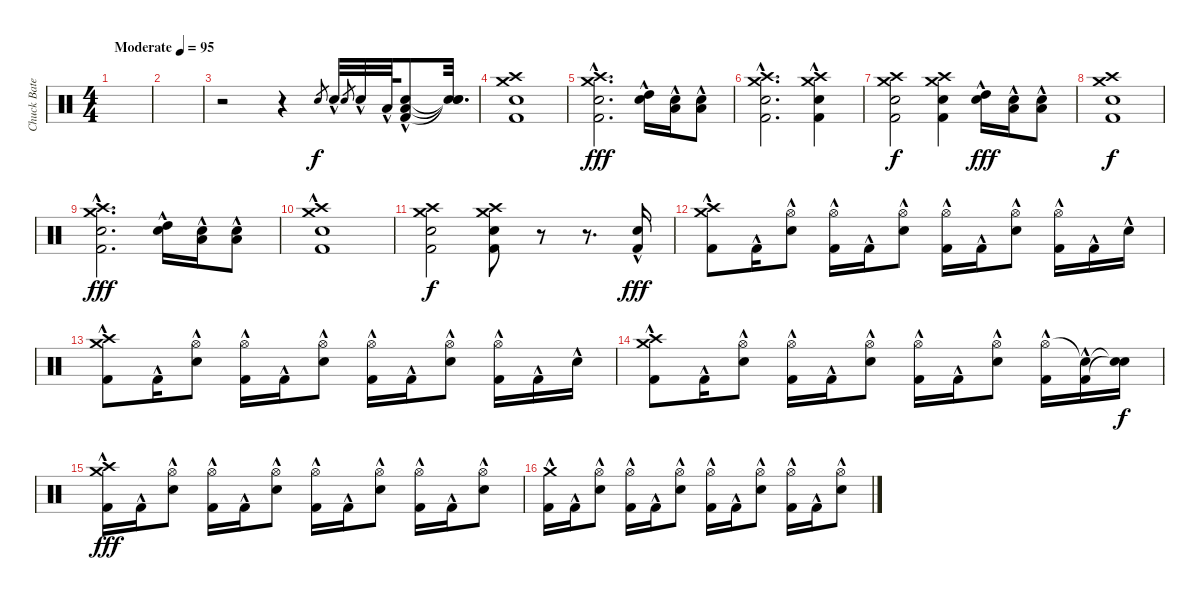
\track ("Chuck Bateria" "Chuck Bate") {instrument percussion}
\staff {score}
\articulation defaults
\ts (4 4)
\tempo (95 "Moderate")
\clef neutral
\ks c
|
|
r.2 r.4 "Electric Snare (hit)".8{gr} "Electric Snare (hit)"{hac}.32 "Electric Snare (hit)".8{gr} "Electric Snare (hit)"{hac}.32 "Low Floor Tom (hit)"{hac}.64 ("Low Floor Tom (hit)"{hac} "Electric Snare (hit)"{hac} "Kick (hit) 2"{hac}).8 ("Snare (hit)"{t} "Snare (hit)"{t} "Snare (hit)"{t}).32{d dy f} |
("Crash medium (hit)" "Crash high (hit)" "Electric Snare (hit)" "Kick (hit) 2").1 |
("Crash medium (hit)"{hac} "Crash high (hit)"{hac} "Electric Snare (hit)"{hac} "Kick (hit) 2"{hac}).2{d dy fff} ("High Tom (hit)"{hac} "Electric Snare (hit)").16 ("Low Tom (hit)"{hac} "Electric Snare (hit)").16 ("Low Floor Tom (hit)"{hac} "Electric Snare (hit)").8 |
("Crash medium (hit)"{hac} "Crash high (hit)"{hac} "Electric Snare (hit)"{hac} "Kick (hit) 2"{hac}).2{d} ("Crash medium (hit)"{hac} "Crash high (hit)"{hac} "Electric Snare (hit)"{hac} "Kick (hit) 2"{hac}).4 |
("Crash medium (hit)" "Crash high (hit)" "Electric Snare (hit)" "Kick (hit) 2").2{dy f} ("Crash medium (hit)" "Crash high (hit)" "Electric Snare (hit)" "Kick (hit) 2").4 ("High Tom (hit)"{hac} "Electric Snare (hit)").16{dy fff} ("Low Tom (hit)"{hac} "Electric Snare (hit)").16 ("Low Floor Tom (hit)"{hac} "Electric Snare (hit)").8 |
("Crash medium (hit)" "Crash high (hit)" "Electric Snare (hit)" "Kick (hit) 2").1{dy f} |
("Crash medium (hit)"{hac} "Crash high (hit)"{hac} "Electric Snare (hit)"{hac} "Kick (hit) 2"{hac}).2{d dy fff} ("High Tom (hit)"{hac} "Electric Snare (hit)").16 ("Low Tom (hit)"{hac} "Electric Snare (hit)").16 ("Low Floor Tom (hit)"{hac} "Electric Snare (hit)").8 |
("Crash medium (hit)"{hac} "Crash high (hit)"{hac} "Electric Snare (hit)"{hac} "Kick (hit) 2"{hac}).1 |
("Crash medium (hit)" "Crash high (hit)" "Electric Snare (hit)" "Kick (hit) 2").2{dy f} ("Crash medium (hit)" "Crash high (hit)" "Electric Snare (hit)" "Kick (hit) 2").8 r.8 r.8{d} ("Electric Snare (hit)"{hac} "Kick (hit) 2"{hac}).16{dy fff} |
("Crash medium (hit)" "Crash high (hit)" "Kick (hit) 2"{hac}).8 "Kick (hit) 2"{hac}.16 ("Hi-Hat (open)" "Electric Snare (hit)"{hac}).8 ("Hi-Hat (open)" "Kick (hit) 2"{hac}).16 "Kick (hit) 2"{hac}.16 ("Hi-Hat (open)" "Electric Snare (hit)"{hac}).8 ("Hi-Hat (open)" "Kick (hit) 2"{hac}).16 "Kick (hit) 2"{hac}.16 ("Hi-Hat (open)" "Electric Snare (hit)"{hac}).8 ("Hi-Hat (open)" "Kick (hit) 2"{hac}).16 "Kick (hit) 2"{hac}.16 "Electric Snare (hit)"{hac}.16 |
("Crash medium (hit)" "Crash high (hit)" "Kick (hit) 2"{hac}).8 "Kick (hit) 2"{hac}.16 ("Hi-Hat (open)" "Electric Snare (hit)"{hac}).8 ("Hi-Hat (open)" "Kick (hit) 2"{hac}).16 "Kick (hit) 2"{hac}.16 ("Hi-Hat (open)" "Electric Snare (hit)"{hac}).8 ("Hi-Hat (open)" "Kick (hit) 2"{hac}).16 "Kick (hit) 2"{hac}.16 ("Hi-Hat (open)" "Electric Snare (hit)"{hac}).8 ("Hi-Hat (open)" "Kick (hit) 2"{hac}).16 "Kick (hit) 2"{hac}.16 "Electric Snare (hit)"{hac}.16 |
("Crash medium (hit)" "Crash high (hit)" "Kick (hit) 2"{hac}).8 "Kick (hit) 2"{hac}.16 ("Hi-Hat (open)" "Electric Snare (hit)"{hac}).8 ("Hi-Hat (open)" "Kick (hit) 2"{hac}).16 "Kick (hit) 2"{hac}.16 ("Hi-Hat (open)" "Electric Snare (hit)"{hac}).8 ("Hi-Hat (open)" "Kick (hit) 2"{hac}).16 "Kick (hit) 2"{hac}.16 ("Hi-Hat (open)" "Electric Snare (hit)"{hac}).8 ("Hi-Hat (open)" "Kick (hit) 2"{hac}).16 ("Snare (hit)"{t} "Kick (hit) 2"{hac}).16 ("Snare (hit)"{t} "Snare (hit)"{t}).16{dy f} |
("Crash medium (hit)" "Crash high (hit)" "Kick (hit) 2"{hac}).16{dy fff} "Kick (hit) 2"{hac}.16 ("Hi-Hat (open)" "Electric Snare (hit)"{hac}).8 ("Hi-Hat (open)" "Kick (hit) 2"{hac}).16 "Kick (hit) 2"{hac}.16 ("Hi-Hat (open)" "Electric Snare (hit)"{hac}).8 ("Hi-Hat (open)" "Kick (hit) 2"{hac}).16 "Kick (hit) 2"{hac}.16 ("Hi-Hat (open)" "Electric Snare (hit)"{hac}).8 ("Hi-Hat (open)" "Kick (hit) 2"{hac}).16 "Kick (hit) 2"{hac}.16 ("Hi-Hat (open)" "Electric Snare (hit)"{hac}).8 |
("Crash medium (hit)" "Kick (hit) 2"{hac}).16 "Kick (hit) 2"{hac}.16 ("Hi-Hat (open)" "Electric Snare (hit)"{hac}).8 ("Hi-Hat (open)" "Kick (hit) 2"{hac}).16 "Kick (hit) 2"{hac}.16 ("Hi-Hat (open)" "Electric Snare (hit)"{hac}).8 ("Hi-Hat (open)" "Kick (hit) 2"{hac}).16 "Kick (hit) 2"{hac}.16 ("Hi-Hat (open)" "Electric Snare (hit)"{hac}).8 ("Hi-Hat (open)" "Kick (hit) 2"{hac}).16 "Kick (hit) 2"{hac}.16 ("Hi-Hat (open)" "Electric Snare (hit)"{hac}).8
